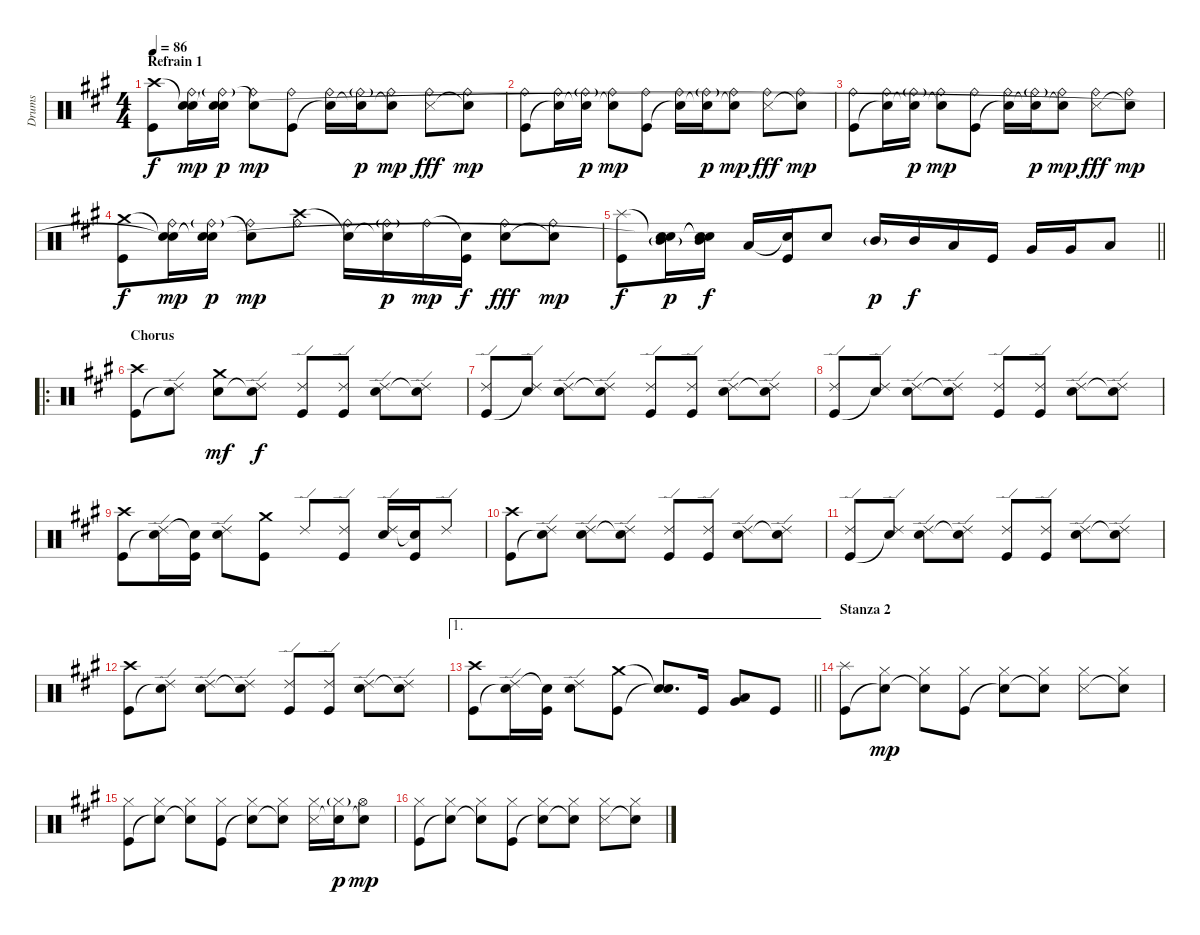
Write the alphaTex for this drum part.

\track ("Drums" "Drums") {instrument percussion}
\staff {score}
\articulation defaults
\ts (4 4)
\section ("" "Refrain 1")
\tempo 86
\clef neutral
\ks a
("Crash high (hit)" "Kick (hit)").8{dy f} ("Snare (hit)"{t} "Ride (bell)" "Snare (hit)").16{dy mp} ("Snare (hit)"{t} "Ride (bell)"{g} "Snare (hit)"{t}).16{dy p} ("Ride (bell)" "Snare (hit)"{t}).8{dy mp} ("Ride (bell)" "Kick (hit)").8 ("Ride (bell)" "Snare (hit)"{t}).16 ("Ride (bell)"{g} "Snare (hit)"{t}).16{dy p} ("Ride (bell)" "Snare (hit)"{t}).8{dy mp} ("Ride (bell)" "Snare (side stick) 3").8{dy fff} ("Ride (bell)" "Snare (hit)"{t}).8{dy mp} |
("Ride (bell)" "Kick (hit)").8 ("Ride (bell)" "Snare (hit)"{t}).16 ("Ride (bell)"{g} "Snare (hit)"{t}).16{dy p} ("Ride (bell)" "Snare (hit)"{t}).8{dy mp} ("Ride (bell)" "Kick (hit)").8 ("Ride (bell)" "Snare (hit)"{t}).16 ("Ride (bell)"{g} "Snare (hit)"{t}).16{dy p} ("Ride (bell)" "Snare (hit)"{t}).8{dy mp} ("Ride (bell)" "Snare (side stick) 3").8{dy fff} ("Ride (bell)" "Snare (hit)"{t}).8{dy mp} |
("Ride (bell)" "Kick (hit)").8 ("Ride (bell)" "Snare (hit)"{t}).16 ("Ride (bell)"{g} "Snare (hit)"{t}).16{dy p} ("Ride (bell)" "Snare (hit)"{t}).8{dy mp} ("Ride (bell)" "Kick (hit)").8 ("Ride (bell)" "Snare (hit)"{t}).16 ("Ride (bell)"{g} "Snare (hit)"{t}).16{dy p} ("Ride (bell)" "Snare (hit)"{t}).8{dy mp} ("Ride (bell)" "Snare (side stick) 3").8{dy fff} ("Ride (bell)" "Snare (hit)"{t}).8{dy mp} |
("Crash medium (hit)" "Kick (hit)").8{dy f} ("Snare (hit)"{t} "Ride (bell)" "Snare (hit)"{t}).16{dy mp} ("Snare (hit)"{t} "Ride (bell)"{g} "Snare (hit)"{t}).16{dy p} ("Ride (bell)" "Snare (hit)"{t}).8{dy mp} ("Crash high (hit)" "Ride (bell)").8 ("Snare (hit)"{t} "Ride (bell)").16 ("Snare (hit)"{t} "Ride (bell)"{g}).16{dy p} "Ride (bell)".16{dy mp} ("Snare (hit)"{t} "Kick (hit)").16{dy f} ("Ride (bell)" "Electric Snare (hit)").8{dy fff} ("Ride (bell)" "Snare (hit)"{t}).8{dy mp} |
\barLineRight lightlight
("Splash (hit)" "Kick (hit)").8{dy f} ("Snare (hit)"{t} "Mid Tom (hit)"{g} "Snare (hit)"{t}).16{dy p} ("Snare (hit)"{t} "Mid Tom (hit)" "Snare (hit)"{t}).16{dy f} "Low Tom (hit)".16 ("Snare (hit)"{t} "Kick (hit)").16 "Electric Snare (hit)".8 "Mid Tom (hit)"{g}.16{dy p} "Mid Tom (hit)".16{dy f} "Low Tom (hit)".16 "Kick (hit)".16 "Very Low Tom (hit)".16 "Very Low Tom (hit)".16 "Low Floor Tom (hit)".8 |
\ro
\section ("" "Chorus")
("Crash high (hit)" "Kick (hit)").8 ("Ride (edge) 2" "Snare (hit)"{t}).8 ("Crash medium (hit)" "Electric Snare (hit)").8{dy mf} ("Ride (edge) 2" "Snare (hit)"{t}).8{dy f} ("Ride (edge) 2" "Kick (hit)").8 ("Ride (edge) 2" "Kick (hit)").8 ("Ride (edge) 2" "Electric Snare (hit)").8 ("Ride (edge) 2" "Snare (hit)"{t}).8 |
("Ride (edge) 2" "Kick (hit)").8 ("Ride (edge) 2" "Snare (hit)"{t}).8 ("Ride (edge) 2" "Electric Snare (hit)").8 ("Ride (edge) 2" "Snare (hit)"{t}).8 ("Ride (edge) 2" "Kick (hit)").8 ("Ride (edge) 2" "Kick (hit)").8 ("Ride (edge) 2" "Electric Snare (hit)").8 ("Ride (edge) 2" "Snare (hit)"{t}).8 |
("Ride (edge) 2" "Kick (hit)").8 ("Ride (edge) 2" "Snare (hit)"{t}).8 ("Ride (edge) 2" "Electric Snare (hit)").8 ("Ride (edge) 2" "Snare (hit)"{t}).8 ("Ride (edge) 2" "Kick (hit)").8 ("Ride (edge) 2" "Kick (hit)").8 ("Ride (edge) 2" "Electric Snare (hit)").8 ("Ride (edge) 2" "Snare (hit)"{t}).8 |
("Crash high (hit)" "Kick (hit)").8 ("Ride (edge) 2" "Snare (hit)"{t}).16 ("Snare (hit)"{t} "Kick (hit)").16 ("Ride (edge) 2" "Electric Snare (hit)").8 ("Crash medium (hit)" "Kick (hit)").8 "Ride (edge) 2".8 ("Ride (edge) 2" "Kick (hit)").8 ("Ride (edge) 2" "Electric Snare (hit)").16 ("Snare (hit)"{t} "Kick (hit)").16 "Ride (edge) 2".8 |
("Crash high (hit)" "Kick (hit)").8 ("Ride (edge) 2" "Snare (hit)"{t}).8 ("Ride (edge) 2" "Electric Snare (hit)").8 ("Ride (edge) 2" "Snare (hit)"{t}).8 ("Ride (edge) 2" "Kick (hit)").8 ("Ride (edge) 2" "Kick (hit)").8 ("Ride (edge) 2" "Electric Snare (hit)").8 ("Ride (edge) 2" "Snare (hit)"{t}).8 |
("Ride (edge) 2" "Kick (hit)").8 ("Ride (edge) 2" "Snare (hit)"{t}).8 ("Ride (edge) 2" "Electric Snare (hit)").8 ("Ride (edge) 2" "Snare (hit)"{t}).8 ("Ride (edge) 2" "Kick (hit)").8 ("Ride (edge) 2" "Kick (hit)").8 ("Ride (edge) 2" "Electric Snare (hit)").8 ("Ride (edge) 2" "Snare (hit)"{t}).8 |
("Crash high (hit)" "Kick (hit)").8 ("Ride (edge) 2" "Snare (hit)"{t}).8 ("Ride (edge) 2" "Electric Snare (hit)").8 ("Ride (edge) 2" "Snare (hit)"{t}).8 ("Ride (edge) 2" "Kick (hit)").8 ("Ride (edge) 2" "Kick (hit)").8 ("Ride (edge) 2" "Electric Snare (hit)").8 ("Ride (edge) 2" "Snare (hit)"{t}).8 |
\ae 1
\barLineRight lightlight
("Crash high (hit)" "Kick (hit)").8 ("Ride (edge) 2" "Snare (hit)"{t}).16 ("Snare (hit)"{t} "Kick (hit)").16 ("Ride (edge) 2" "Electric Snare (hit)").8 ("Crash medium (hit)" "Kick (hit)").8 ("Snare (hit)"{t} "Snare (hit)"{t}).8{d} "Kick (hit)".16 ("Very Low Tom (hit)" "Low Tom (hit)").8 "Kick (hit)".8 |
\section ("" "Stanza 2")
("Splash (hit)" "Kick (hit)").8 ("Hi-Hat (closed)" "Snare (hit)"{t}).8{dy mp} ("Hi-Hat (closed)" "Snare (hit)"{t}).8 ("Hi-Hat (closed)" "Kick (hit)").8 ("Hi-Hat (closed)" "Snare (hit)"{t}).8 ("Hi-Hat (closed)" "Snare (hit)"{t}).8 ("Hi-Hat (closed)" "Snare (side stick) 3").8 ("Hi-Hat (closed)" "Snare (hit)"{t}).8 |
("Hi-Hat (closed)" "Kick (hit)").8 ("Hi-Hat (closed)" "Snare (hit)"{t}).8 ("Hi-Hat (closed)" "Snare (hit)"{t}).8 ("Hi-Hat (closed)" "Kick (hit)").8 ("Hi-Hat (closed)" "Snare (hit)"{t}).8 ("Hi-Hat (closed)" "Snare (hit)"{t}).8 ("Hi-Hat (closed)" "Snare (side stick) 3").16 ("Hi-Hat (closed)"{g} "Snare (hit)"{t}).16{dy p} ("Hi-Hat (open)" "Snare (hit)"{t}).8{dy mp} |
("Hi-Hat (closed)" "Kick (hit)").8 ("Hi-Hat (closed)" "Snare (hit)"{t}).8 ("Hi-Hat (closed)" "Snare (hit)"{t}).8 ("Hi-Hat (closed)" "Kick (hit)").8 ("Hi-Hat (closed)" "Snare (hit)"{t}).8 ("Hi-Hat (closed)" "Snare (hit)"{t}).8 ("Hi-Hat (closed)" "Snare (side stick) 3").8 ("Hi-Hat (closed)" "Snare (hit)"{t}).8
